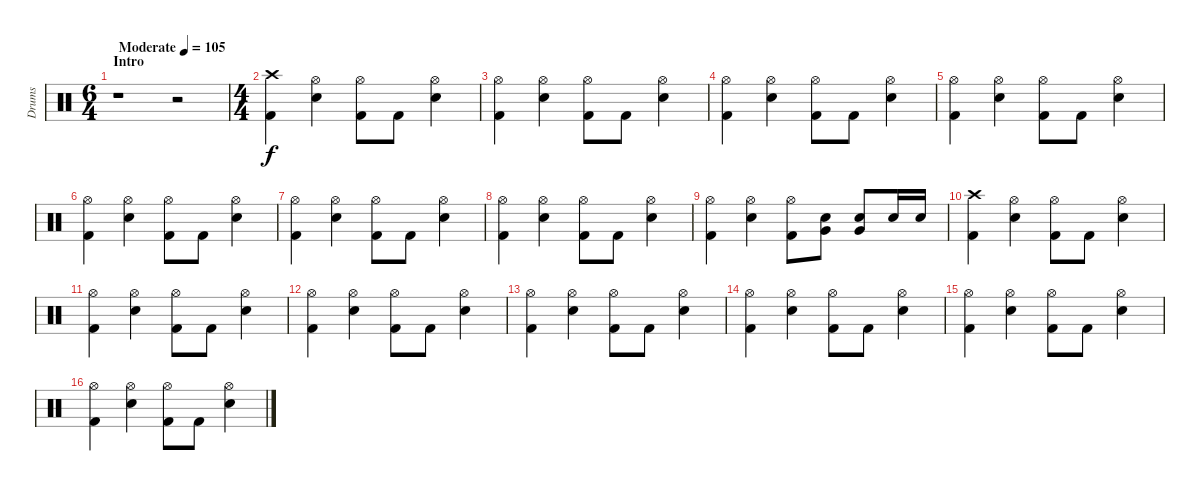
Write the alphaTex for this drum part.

\track ("Drums" "Drums") {instrument percussion}
\staff {score}
\articulation defaults
\ts (6 4)
\section ("" "Intro")
\tempo (105 "Moderate")
\clef neutral
\ks c
r.1{dy f} r.2 |
\ts (4 4)
("Crash high (hit)" "Kick (hit) 2").4 ("Electric Snare (hit)" "Hi-Hat (open)").4 ("Hi-Hat (open)" "Kick (hit) 2").8 "Kick (hit) 2".8 ("Hi-Hat (open)" "Electric Snare (hit)").4 |
("Hi-Hat (open)" "Kick (hit) 2").4 ("Electric Snare (hit)" "Hi-Hat (open)").4 ("Hi-Hat (open)" "Kick (hit) 2").8 "Kick (hit) 2".8 ("Hi-Hat (open)" "Electric Snare (hit)").4 |
("Hi-Hat (open)" "Kick (hit) 2").4 ("Electric Snare (hit)" "Hi-Hat (open)").4 ("Hi-Hat (open)" "Kick (hit) 2").8 "Kick (hit) 2".8 ("Hi-Hat (open)" "Electric Snare (hit)").4 |
("Hi-Hat (open)" "Kick (hit) 2").4 ("Electric Snare (hit)" "Hi-Hat (open)").4 ("Hi-Hat (open)" "Kick (hit) 2").8 "Kick (hit) 2".8 ("Hi-Hat (open)" "Electric Snare (hit)").4 |
("Hi-Hat (open)" "Kick (hit) 2").4 ("Electric Snare (hit)" "Hi-Hat (open)").4 ("Hi-Hat (open)" "Kick (hit) 2").8 "Kick (hit) 2".8 ("Hi-Hat (open)" "Electric Snare (hit)").4 |
("Hi-Hat (open)" "Kick (hit) 2").4 ("Electric Snare (hit)" "Hi-Hat (open)").4 ("Hi-Hat (open)" "Kick (hit) 2").8 "Kick (hit) 2".8 ("Hi-Hat (open)" "Electric Snare (hit)").4 |
("Hi-Hat (open)" "Kick (hit) 2").4 ("Electric Snare (hit)" "Hi-Hat (open)").4 ("Hi-Hat (open)" "Kick (hit) 2").8 "Kick (hit) 2".8 ("Hi-Hat (open)" "Electric Snare (hit)").4 |
("Hi-Hat (open)" "Kick (hit) 2").4 ("Electric Snare (hit)" "Hi-Hat (open)").4 ("Hi-Hat (open)" "Kick (hit) 2").8 ("Electric Snare (hit)" "Very Low Tom (hit)").8 ("Electric Snare (hit)" "Very Low Tom (hit)").8 "Electric Snare (hit)".16 "Electric Snare (hit)".16 |
("Crash high (hit)" "Kick (hit) 2").4 ("Electric Snare (hit)" "Hi-Hat (open)").4 ("Hi-Hat (open)" "Kick (hit) 2").8 "Kick (hit) 2".8 ("Hi-Hat (open)" "Electric Snare (hit)").4 |
("Hi-Hat (open)" "Kick (hit) 2").4 ("Electric Snare (hit)" "Hi-Hat (open)").4 ("Hi-Hat (open)" "Kick (hit) 2").8 "Kick (hit) 2".8 ("Hi-Hat (open)" "Electric Snare (hit)").4 |
("Hi-Hat (open)" "Kick (hit) 2").4 ("Electric Snare (hit)" "Hi-Hat (open)").4 ("Hi-Hat (open)" "Kick (hit) 2").8 "Kick (hit) 2".8 ("Hi-Hat (open)" "Electric Snare (hit)").4 |
("Hi-Hat (open)" "Kick (hit) 2").4 ("Electric Snare (hit)" "Hi-Hat (open)").4 ("Hi-Hat (open)" "Kick (hit) 2").8 "Kick (hit) 2".8 ("Hi-Hat (open)" "Electric Snare (hit)").4 |
("Hi-Hat (open)" "Kick (hit) 2").4 ("Electric Snare (hit)" "Hi-Hat (open)").4 ("Hi-Hat (open)" "Kick (hit) 2").8 "Kick (hit) 2".8 ("Hi-Hat (open)" "Electric Snare (hit)").4 |
("Hi-Hat (open)" "Kick (hit) 2").4 ("Electric Snare (hit)" "Hi-Hat (open)").4 ("Hi-Hat (open)" "Kick (hit) 2").8 "Kick (hit) 2".8 ("Hi-Hat (open)" "Electric Snare (hit)").4 |
("Hi-Hat (open)" "Kick (hit) 2").4 ("Electric Snare (hit)" "Hi-Hat (open)").4 ("Hi-Hat (open)" "Kick (hit) 2").8 "Kick (hit) 2".8 ("Hi-Hat (open)" "Electric Snare (hit)").4
